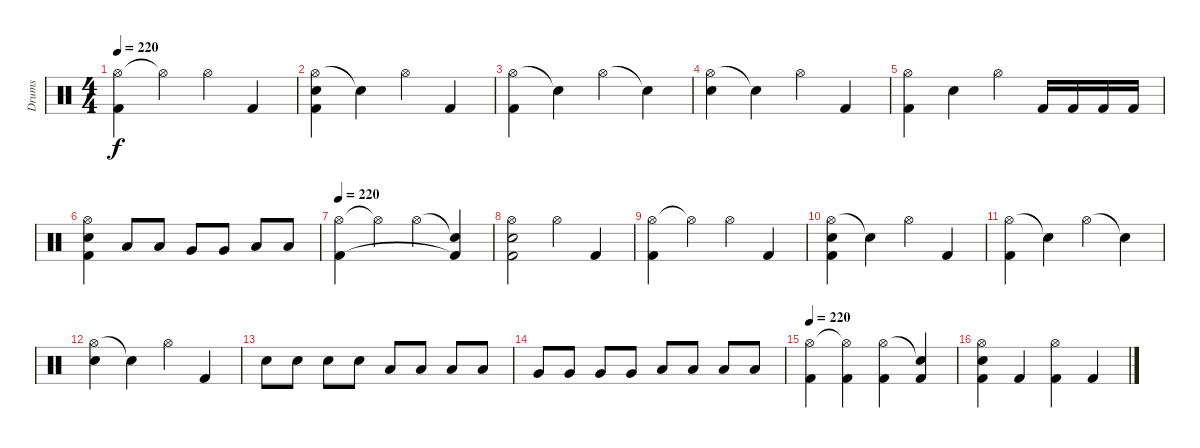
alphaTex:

\track ("Drums" "Drums") {instrument percussion}
\staff {score}
\articulation defaults
\ts (4 4)
\tempo 220
\clef neutral
\ks c
("Hi-Hat (open)" "Kick (hit) 2").4{dy f} "Hi-Hat (open)"{t}.4 "Hi-Hat (open)".4 "Kick (hit) 2".4 |
("Hi-Hat (open)" "Snare (hit) 2" "Kick (hit) 2").4 "Snare (hit)"{t}.4 "Hi-Hat (open)".4 "Kick (hit) 2".4 |
("Hi-Hat (open)" "Kick (hit) 2").4 "Snare (hit)"{t}.4 "Hi-Hat (open)".4 "Snare (hit)"{t}.4 |
("Hi-Hat (open)" "Snare (hit) 2").4 "Snare (hit)"{t}.4 "Hi-Hat (open)".4 "Kick (hit) 2".4 |
("Hi-Hat (open)" "Kick (hit) 2").4 "Snare (hit) 2".4 "Hi-Hat (open)".4 "Kick (hit) 2".16 "Kick (hit) 2".16 "Kick (hit) 2".16 "Kick (hit) 2".16 |
("Hi-Hat (open)" "Snare (hit) 2" "Kick (hit) 2").4 "Low Tom (hit)".8 "Low Tom (hit)".8 "Very Low Tom (hit)".8 "Very Low Tom (hit)".8 "Low Floor Tom (hit)".8 "Low Floor Tom (hit)".8 |
\tempo 220
("Hi-Hat (open)" "Kick (hit) 2").4 "Hi-Hat (open)"{t}.4 "Hi-Hat (open)".4 ("Snare (hit)"{t} "Kick (hit) 2"{t}).4 |
("Hi-Hat (open)" "Snare (hit) 2" "Kick (hit) 2").2 "Hi-Hat (open)".4 "Kick (hit) 2".4 |
("Hi-Hat (open)" "Kick (hit) 2").4 "Hi-Hat (open)"{t}.4 "Hi-Hat (open)".4 "Kick (hit) 2".4 |
("Hi-Hat (open)" "Snare (hit) 2" "Kick (hit) 2").4 "Snare (hit)"{t}.4 "Hi-Hat (open)".4 "Kick (hit) 2".4 |
("Hi-Hat (open)" "Kick (hit) 2").4 "Snare (hit)"{t}.4 "Hi-Hat (open)".4 "Snare (hit)"{t}.4 |
("Hi-Hat (open)" "Snare (hit) 2").4 "Snare (hit)"{t}.4 "Hi-Hat (open)".4 "Kick (hit) 2".4 |
"Snare (hit) 2".8 "Snare (hit) 2".8 "Snare (hit) 2".8 "Snare (hit) 2".8 "Low Tom (hit)".8 "Low Tom (hit)".8 "Low Tom (hit)".8 "Low Tom (hit)".8 |
"Very Low Tom (hit)".8 "Very Low Tom (hit)".8 "Very Low Tom (hit)".8 "Very Low Tom (hit)".8 "Low Floor Tom (hit)".8 "Low Floor Tom (hit)".8 "Low Floor Tom (hit)".8 "Low Floor Tom (hit)".8 |
\tempo 220
("Hi-Hat (open)" "Kick (hit) 2").4 ("Hi-Hat (open)"{t} "Kick (hit) 2").4 ("Hi-Hat (open)" "Kick (hit) 2").4 ("Snare (hit)"{t} "Kick (hit) 2").4 |
("Hi-Hat (open)" "Snare (hit) 2" "Kick (hit) 2").4 "Kick (hit) 2".4 ("Hi-Hat (open)" "Kick (hit) 2").4 "Kick (hit) 2".4
